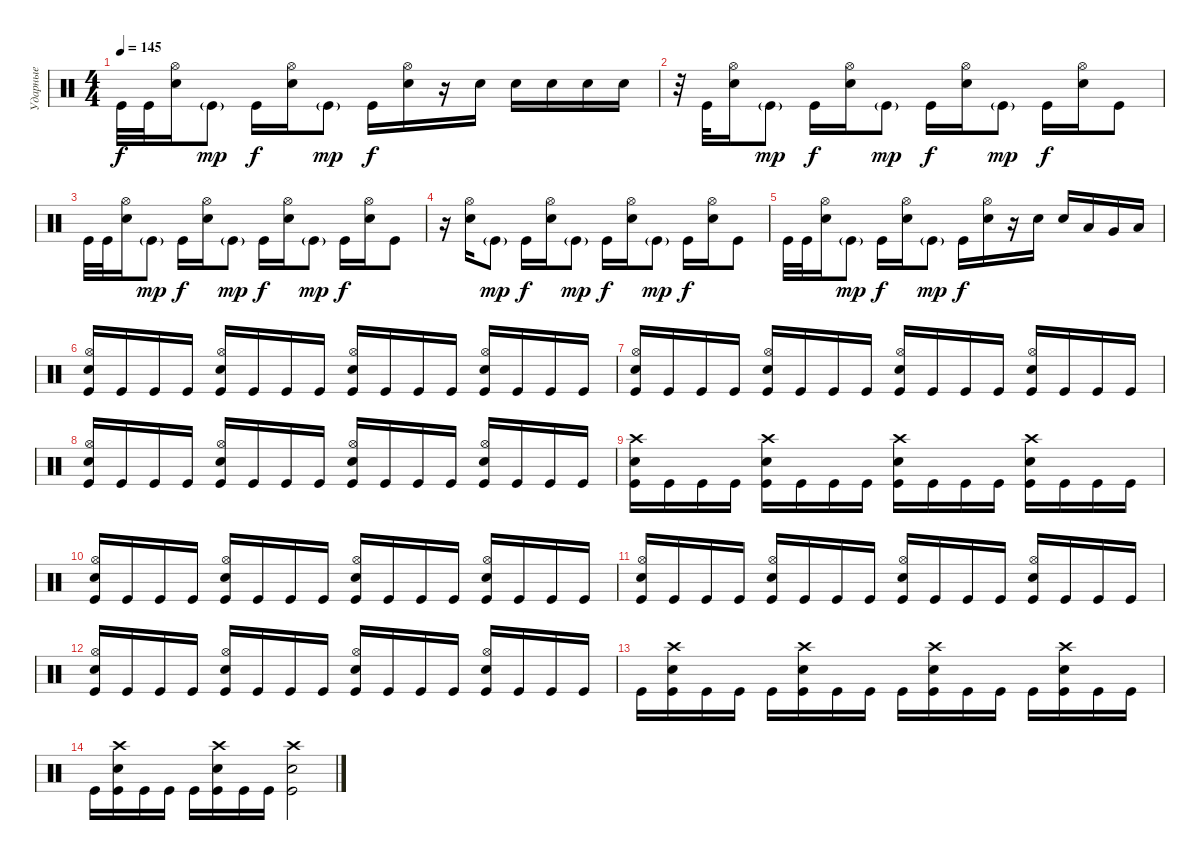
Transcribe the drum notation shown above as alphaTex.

\track ("Ударные" "Ударные") {instrument percussion}
\staff {score}
\articulation defaults
\ts (4 4)
\tempo 145
\clef neutral
\ks c "Kick (hit)".32{dy f} "Kick (hit)".32
("Hi-Hat (open)" "Snare (hit) 2").16 "Kick (hit)"{g}.8{dy mp} "Kick (hit)".16{dy f} ("Hi-Hat (open)" "Snare (hit) 2").16 "Kick (hit)"{g}.8{dy mp} "Kick (hit)".16{dy f} ("Hi-Hat (open)" "Snare (hit) 2").16 r.16 "Snare (hit) 2".16 "Snare (hit) 2".16 "Snare (hit) 2".16 "Snare (hit) 2".16 "Snare (hit) 2".16 |
r.32 "Kick (hit)".32 ("Hi-Hat (open)" "Snare (hit) 2").16 "Kick (hit)"{g}.8{dy mp} "Kick (hit)".16{dy f} ("Hi-Hat (open)" "Snare (hit) 2").16 "Kick (hit)"{g}.8{dy mp} "Kick (hit)".16{dy f} ("Hi-Hat (open)" "Snare (hit) 2").16 "Kick (hit)"{g}.8{dy mp} "Kick (hit)".16{dy f} ("Hi-Hat (open)" "Snare (hit) 2").16 "Kick (hit)".8 |
"Kick (hit)".32 "Kick (hit)".32 ("Hi-Hat (open)" "Snare (hit) 2").16 "Kick (hit)"{g}.8{dy mp} "Kick (hit)".16{dy f} ("Hi-Hat (open)" "Snare (hit) 2").16 "Kick (hit)"{g}.8{dy mp} "Kick (hit)".16{dy f} ("Hi-Hat (open)" "Snare (hit) 2").16 "Kick (hit)"{g}.8{dy mp} "Kick (hit)".16{dy f} ("Hi-Hat (open)" "Snare (hit) 2").16 "Kick (hit)".8 |
r.16 ("Hi-Hat (open)" "Snare (hit) 2").16 "Kick (hit)"{g}.8{dy mp} "Kick (hit)".16{dy f} ("Hi-Hat (open)" "Snare (hit) 2").16 "Kick (hit)"{g}.8{dy mp} "Kick (hit)".16{dy f} ("Hi-Hat (open)" "Snare (hit) 2").16 "Kick (hit)"{g}.8{dy mp} "Kick (hit)".16{dy f} ("Hi-Hat (open)" "Snare (hit) 2").16 "Kick (hit)".8 |
"Kick (hit)".32 "Kick (hit)".32 ("Hi-Hat (open)" "Snare (hit) 2").16 "Kick (hit)"{g}.8{dy mp} "Kick (hit)".16{dy f} ("Hi-Hat (open)" "Snare (hit) 2").16 "Kick (hit)"{g}.8{dy mp} "Kick (hit)".16{dy f} ("Hi-Hat (open)" "Snare (hit) 2").16 r.16 "Snare (hit) 2".16 "Snare (hit) 2".16 "Low Tom (hit)".16 "Very Low Tom (hit)".16 "Low Floor Tom (hit)".16 |
("Hi-Hat (open)" "Snare (hit) 2" "Kick (hit)").16 "Kick (hit)".16 "Kick (hit)".16 "Kick (hit)".16 ("Hi-Hat (open)" "Snare (hit) 2" "Kick (hit)").16 "Kick (hit)".16 "Kick (hit)".16 "Kick (hit)".16 ("Hi-Hat (open)" "Snare (hit) 2" "Kick (hit)").16 "Kick (hit)".16 "Kick (hit)".16 "Kick (hit)".16 ("Hi-Hat (open)" "Snare (hit) 2" "Kick (hit)").16 "Kick (hit)".16 "Kick (hit)".16 "Kick (hit)".16 |
("Hi-Hat (open)" "Snare (hit) 2" "Kick (hit)").16 "Kick (hit)".16 "Kick (hit)".16 "Kick (hit)".16 ("Hi-Hat (open)" "Snare (hit) 2" "Kick (hit)").16 "Kick (hit)".16 "Kick (hit)".16 "Kick (hit)".16 ("Hi-Hat (open)" "Snare (hit) 2" "Kick (hit)").16 "Kick (hit)".16 "Kick (hit)".16 "Kick (hit)".16 ("Hi-Hat (open)" "Snare (hit) 2" "Kick (hit)").16 "Kick (hit)".16 "Kick (hit)".16 "Kick (hit)".16 |
("Hi-Hat (open)" "Snare (hit) 2" "Kick (hit)").16 "Kick (hit)".16 "Kick (hit)".16 "Kick (hit)".16 ("Hi-Hat (open)" "Snare (hit) 2" "Kick (hit)").16 "Kick (hit)".16 "Kick (hit)".16 "Kick (hit)".16 ("Hi-Hat (open)" "Snare (hit) 2" "Kick (hit)").16 "Kick (hit)".16 "Kick (hit)".16 "Kick (hit)".16 ("Hi-Hat (open)" "Snare (hit) 2" "Kick (hit)").16 "Kick (hit)".16 "Kick (hit)".16 "Kick (hit)".16 |
("Crash high (hit)" "Snare (hit) 2" "Kick (hit)").16 "Kick (hit)".16 "Kick (hit)".16 "Kick (hit)".16 ("Crash high (hit)" "Snare (hit) 2" "Kick (hit)").16 "Kick (hit)".16 "Kick (hit)".16 "Kick (hit)".16 ("Crash high (hit)" "Snare (hit) 2" "Kick (hit)").16 "Kick (hit)".16 "Kick (hit)".16 "Kick (hit)".16 ("Crash high (hit)" "Snare (hit) 2" "Kick (hit)").16 "Kick (hit)".16 "Kick (hit)".16 "Kick (hit)".16 |
("Hi-Hat (open)" "Snare (hit) 2" "Kick (hit)").16 "Kick (hit)".16 "Kick (hit)".16 "Kick (hit)".16 ("Hi-Hat (open)" "Snare (hit) 2" "Kick (hit)").16 "Kick (hit)".16 "Kick (hit)".16 "Kick (hit)".16 ("Hi-Hat (open)" "Snare (hit) 2" "Kick (hit)").16 "Kick (hit)".16 "Kick (hit)".16 "Kick (hit)".16 ("Hi-Hat (open)" "Snare (hit) 2" "Kick (hit)").16 "Kick (hit)".16 "Kick (hit)".16 "Kick (hit)".16 |
("Hi-Hat (open)" "Snare (hit) 2" "Kick (hit)").16 "Kick (hit)".16 "Kick (hit)".16 "Kick (hit)".16 ("Hi-Hat (open)" "Snare (hit) 2" "Kick (hit)").16 "Kick (hit)".16 "Kick (hit)".16 "Kick (hit)".16 ("Hi-Hat (open)" "Snare (hit) 2" "Kick (hit)").16 "Kick (hit)".16 "Kick (hit)".16 "Kick (hit)".16 ("Hi-Hat (open)" "Snare (hit) 2" "Kick (hit)").16 "Kick (hit)".16 "Kick (hit)".16 "Kick (hit)".16 |
("Hi-Hat (open)" "Snare (hit) 2" "Kick (hit)").16 "Kick (hit)".16 "Kick (hit)".16 "Kick (hit)".16 ("Hi-Hat (open)" "Snare (hit) 2" "Kick (hit)").16 "Kick (hit)".16 "Kick (hit)".16 "Kick (hit)".16 ("Hi-Hat (open)" "Snare (hit) 2" "Kick (hit)").16 "Kick (hit)".16 "Kick (hit)".16 "Kick (hit)".16 ("Hi-Hat (open)" "Snare (hit) 2" "Kick (hit)").16 "Kick (hit)".16 "Kick (hit)".16 "Kick (hit)".16 |
"Kick (hit)".16 ("Crash high (hit)" "Snare (hit) 2" "Kick (hit)").16 "Kick (hit)".16 "Kick (hit)".16 "Kick (hit)".16 ("Crash high (hit)" "Snare (hit) 2" "Kick (hit)").16 "Kick (hit)".16 "Kick (hit)".16 "Kick (hit)".16 ("Crash high (hit)" "Snare (hit) 2" "Kick (hit)").16 "Kick (hit)".16 "Kick (hit)".16 "Kick (hit)".16 ("Crash high (hit)" "Snare (hit) 2" "Kick (hit)").16 "Kick (hit)".16 "Kick (hit)".16 |
"Kick (hit)".16 ("Crash high (hit)" "Snare (hit) 2" "Kick (hit)").16 "Kick (hit)".16 "Kick (hit)".16 "Kick (hit)".16 ("Crash high (hit)" "Snare (hit) 2" "Kick (hit)").16 "Kick (hit)".16 "Kick (hit)".16 ("Crash high (hit)" "Snare (hit) 2" "Kick (hit)").2
